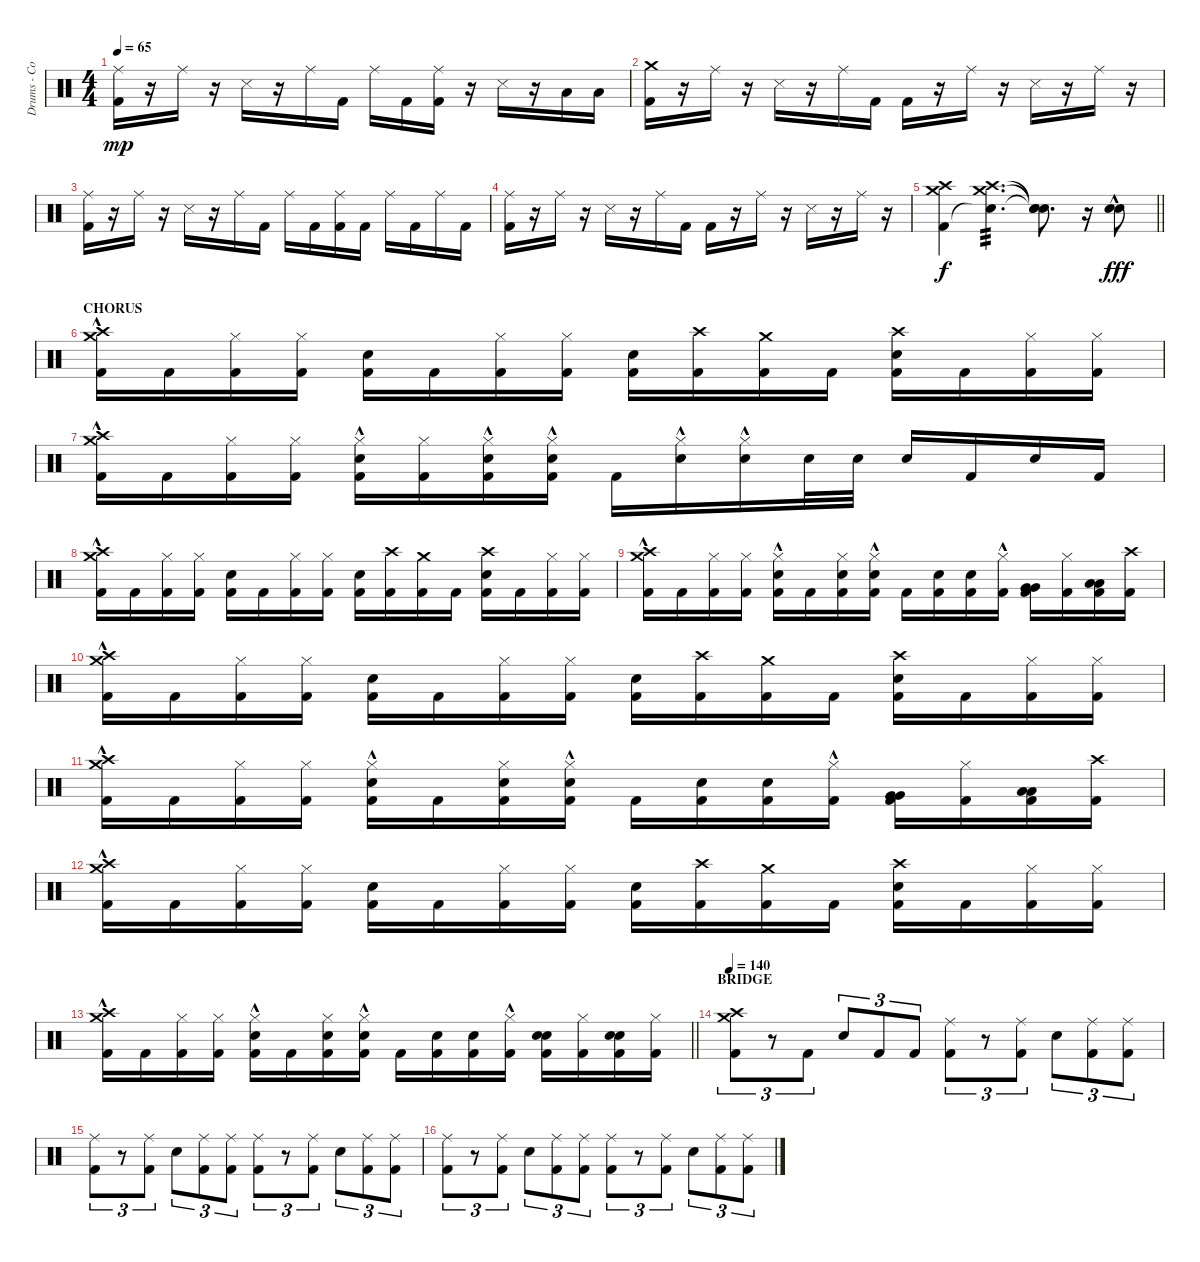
\track ("Drums - Cozy Powell" "Drums - Co") {instrument percussion}
\staff {score}
\articulation defaults
\ts (4 4)
\tempo 65
\clef neutral
\ks c
("Ride (middle)" "Kick (hit) 2").16{dy mp} r.16 "Ride (middle)".16 r.16 "Snare (side stick) 3".16 r.16 "Ride (middle)".16 "Kick (hit) 2".16 "Ride (middle)".16 "Kick (hit) 2".16 ("Ride (middle)" "Kick (hit) 2").16 r.16 "Snare (side stick) 3".16 r.16 "Low Tom (hit)".16 "Low Floor Tom (hit)".16 |
("Crash medium (hit)" "Kick (hit) 2").16 r.16 "Ride (middle)".16 r.16 "Snare (side stick) 3".16 r.16 "Ride (middle)".16 "Kick (hit) 2".16 "Kick (hit) 2".16 r.16 "Ride (middle)".16 r.16 "Snare (side stick) 3".16 r.16 "Ride (middle)".16 r.16 |
("Ride (middle)" "Kick (hit) 2").16 r.16 "Ride (middle)".16 r.16 "Snare (side stick) 3".16 r.16 "Ride (middle)".16 "Kick (hit) 2".16 "Ride (middle)".16 "Kick (hit) 2".16 ("Ride (middle)" "Kick (hit) 2").16 "Kick (hit) 2".16 "Ride (middle)".16 "Kick (hit) 2".16 "Ride (middle)".16 "Kick (hit) 2".16 |
("Ride (middle)" "Kick (hit) 2").16 r.16 "Ride (middle)".16 r.16 "Snare (side stick) 3".16 r.16 "Ride (middle)".16 "Kick (hit) 2".16 "Kick (hit) 2".16 r.16 "Ride (middle)".16 r.16 "Snare (side stick) 3".16 r.16 "Ride (middle)".16 r.16 |
\barLineRight lightlight
("Crash high (hit)" "Crash medium (hit)" "Kick (hit) 2").4{dy f} ("Crash high (hit)" "Crash medium (hit)" "Snare (hit)"{t}).4{d tp 3} ("Snare (hit)"{t} "Snare (hit)"{t} "Snare (hit)"{t}).8{d} r.16 ("Snare (hit) 2" "Snare (hit) 2"{hac}).8{dy fff} |
\section ("" "CHORUS")
("Crash medium (hit)" "Crash high (hit)"{hac} "Kick (hit) 2").16 "Kick (hit) 2".16 ("Hi-Hat (closed)" "Kick (hit) 2").16 ("Hi-Hat (closed)" "Kick (hit) 2").16 ("Snare (hit) 2" "Kick (hit) 2").16 "Kick (hit) 2".16 ("Hi-Hat (closed)" "Kick (hit) 2").16 ("Hi-Hat (closed)" "Kick (hit) 2").16 ("Snare (hit) 2" "Kick (hit) 2").16 ("Crash high (hit)" "Kick (hit) 2").16 ("Crash medium (hit)" "Kick (hit) 2").16 "Kick (hit) 2".16 ("Crash high (hit)" "Snare (hit) 2" "Kick (hit) 2").16 "Kick (hit) 2".16 ("Hi-Hat (closed)" "Kick (hit) 2").16 ("Hi-Hat (closed)" "Kick (hit) 2").16 |
("Crash medium (hit)" "Crash high (hit)"{hac} "Kick (hit) 2").16 "Kick (hit) 2".16 ("Hi-Hat (closed)" "Kick (hit) 2").16 ("Hi-Hat (closed)" "Kick (hit) 2").16 ("Hi-Hat (closed)"{hac} "Snare (hit) 2" "Kick (hit) 2").16 ("Hi-Hat (closed)" "Kick (hit) 2").16 ("Hi-Hat (closed)"{hac} "Snare (hit) 2" "Kick (hit) 2").16 ("Hi-Hat (closed)"{hac} "Snare (hit) 2" "Kick (hit) 2").16 "Kick (hit) 2".16 ("Hi-Hat (closed)"{hac} "Snare (hit) 2").16 ("Hi-Hat (closed)"{hac} "Snare (hit) 2").16 "Snare (hit) 2".32 "Snare (hit) 2".32 "Snare (hit) 2".16 "Kick (hit) 2".16 "Snare (hit) 2".16 "Kick (hit) 2".16 |
("Crash medium (hit)" "Crash high (hit)"{hac} "Kick (hit) 2").16 "Kick (hit) 2".16 ("Hi-Hat (closed)" "Kick (hit) 2").16 ("Hi-Hat (closed)" "Kick (hit) 2").16 ("Snare (hit) 2" "Kick (hit) 2").16 "Kick (hit) 2".16 ("Hi-Hat (closed)" "Kick (hit) 2").16 ("Hi-Hat (closed)" "Kick (hit) 2").16 ("Snare (hit) 2" "Kick (hit) 2").16 ("Crash high (hit)" "Kick (hit) 2").16 ("Crash medium (hit)" "Kick (hit) 2").16 "Kick (hit) 2".16 ("Crash high (hit)" "Snare (hit) 2" "Kick (hit) 2").16 "Kick (hit) 2".16 ("Hi-Hat (closed)" "Kick (hit) 2").16 ("Hi-Hat (closed)" "Kick (hit) 2").16 |
("Crash medium (hit)" "Crash high (hit)"{hac} "Kick (hit) 2").16 "Kick (hit) 2".16 ("Hi-Hat (closed)" "Kick (hit) 2").16 ("Hi-Hat (closed)" "Kick (hit) 2").16 ("Hi-Hat (closed)"{hac} "Snare (hit) 2" "Kick (hit) 2").16 "Kick (hit) 2".16 ("Hi-Hat (closed)" "Snare (hit) 2" "Kick (hit) 2").16 ("Hi-Hat (closed)"{hac} "Snare (hit) 2" "Kick (hit) 2").16 "Kick (hit) 2".16 ("Snare (hit) 2" "Kick (hit) 2").16 ("Snare (hit) 2" "Kick (hit) 2").16 ("Hi-Hat (closed)"{hac} "Kick (hit) 2").16 ("Very Low Tom (hit)" "Very Low Tom (hit)" "Kick (hit) 2").16 ("Hi-Hat (closed)" "Kick (hit) 2").16 ("Low Floor Tom (hit)" "Low Floor Tom (hit)" "Kick (hit) 2").16 ("Crash high (hit)" "Kick (hit) 2").16 |
("Crash medium (hit)" "Crash high (hit)"{hac} "Kick (hit) 2").16 "Kick (hit) 2".16 ("Hi-Hat (closed)" "Kick (hit) 2").16 ("Hi-Hat (closed)" "Kick (hit) 2").16 ("Snare (hit) 2" "Kick (hit) 2").16 "Kick (hit) 2".16 ("Hi-Hat (closed)" "Kick (hit) 2").16 ("Hi-Hat (closed)" "Kick (hit) 2").16 ("Snare (hit) 2" "Kick (hit) 2").16 ("Crash high (hit)" "Kick (hit) 2").16 ("Crash medium (hit)" "Kick (hit) 2").16 "Kick (hit) 2".16 ("Crash high (hit)" "Snare (hit) 2" "Kick (hit) 2").16 "Kick (hit) 2".16 ("Hi-Hat (closed)" "Kick (hit) 2").16 ("Hi-Hat (closed)" "Kick (hit) 2").16 |
("Crash medium (hit)" "Crash high (hit)"{hac} "Kick (hit) 2").16 "Kick (hit) 2".16 ("Hi-Hat (closed)" "Kick (hit) 2").16 ("Hi-Hat (closed)" "Kick (hit) 2").16 ("Hi-Hat (closed)"{hac} "Snare (hit) 2" "Kick (hit) 2").16 "Kick (hit) 2".16 ("Hi-Hat (closed)" "Snare (hit) 2" "Kick (hit) 2").16 ("Hi-Hat (closed)"{hac} "Snare (hit) 2" "Kick (hit) 2").16 "Kick (hit) 2".16 ("Snare (hit) 2" "Kick (hit) 2").16 ("Snare (hit) 2" "Kick (hit) 2").16 ("Hi-Hat (closed)"{hac} "Kick (hit) 2").16 ("Very Low Tom (hit)" "Very Low Tom (hit)" "Kick (hit) 2").16 ("Hi-Hat (closed)" "Kick (hit) 2").16 ("Low Floor Tom (hit)" "Low Floor Tom (hit)" "Kick (hit) 2").16 ("Crash high (hit)" "Kick (hit) 2").16 |
("Crash medium (hit)" "Crash high (hit)"{hac} "Kick (hit) 2").16 "Kick (hit) 2".16 ("Hi-Hat (closed)" "Kick (hit) 2").16 ("Hi-Hat (closed)" "Kick (hit) 2").16 ("Snare (hit) 2" "Kick (hit) 2").16 "Kick (hit) 2".16 ("Hi-Hat (closed)" "Kick (hit) 2").16 ("Hi-Hat (closed)" "Kick (hit) 2").16 ("Snare (hit) 2" "Kick (hit) 2").16 ("Crash high (hit)" "Kick (hit) 2").16 ("Crash medium (hit)" "Kick (hit) 2").16 "Kick (hit) 2".16 ("Crash high (hit)" "Snare (hit) 2" "Kick (hit) 2").16 "Kick (hit) 2".16 ("Hi-Hat (closed)" "Kick (hit) 2").16 ("Hi-Hat (closed)" "Kick (hit) 2").16 |
\barLineRight lightlight
("Crash medium (hit)" "Crash high (hit)"{hac} "Kick (hit) 2").16 "Kick (hit) 2".16 ("Hi-Hat (closed)" "Kick (hit) 2").16 ("Hi-Hat (closed)" "Kick (hit) 2").16 ("Hi-Hat (closed)"{hac} "Snare (hit) 2" "Kick (hit) 2").16 "Kick (hit) 2".16 ("Hi-Hat (closed)" "Snare (hit) 2" "Kick (hit) 2").16 ("Hi-Hat (closed)"{hac} "Snare (hit) 2" "Kick (hit) 2").16 "Kick (hit) 2".16 ("Snare (hit) 2" "Kick (hit) 2").16 ("Snare (hit) 2" "Kick (hit) 2").16 ("Hi-Hat (closed)"{hac} "Kick (hit) 2").16 ("Snare (hit) 2" "Snare (hit) 2" "Kick (hit) 2").16 ("Hi-Hat (closed)" "Kick (hit) 2").16 ("Snare (hit) 2" "Snare (hit) 2" "Kick (hit) 2").16 ("Hi-Hat (closed)" "Kick (hit) 2").16 |
\section ("" "BRIDGE")
\tempo 140
("Crash high (hit)" "Crash medium (hit)" "Kick (hit) 2").8{tu (3 2)} r.8{tu (3 2)} "Kick (hit) 2".8{tu (3 2)} "Snare (hit) 2".8{tu (3 2)} "Kick (hit) 2".8{tu (3 2)} "Kick (hit) 2".8{tu (3 2)} ("Ride (middle)" "Kick (hit) 2").8{tu (3 2)} r.8{tu (3 2)} ("Ride (middle)" "Kick (hit) 2").8{tu (3 2)} "Snare (hit) 2".8{tu (3 2)} ("Ride (middle)" "Kick (hit) 2").8{tu (3 2)} ("Ride (middle)" "Kick (hit) 2").8{tu (3 2)} |
("Ride (middle)" "Kick (hit) 2").8{tu (3 2)} r.8{tu (3 2)} ("Ride (middle)" "Kick (hit) 2").8{tu (3 2)} "Snare (hit) 2".8{tu (3 2)} ("Ride (middle)" "Kick (hit) 2").8{tu (3 2)} ("Ride (middle)" "Kick (hit) 2").8{tu (3 2)} ("Ride (middle)" "Kick (hit) 2").8{tu (3 2)} r.8{tu (3 2)} ("Ride (middle)" "Kick (hit) 2").8{tu (3 2)} "Snare (hit) 2".8{tu (3 2)} ("Ride (middle)" "Kick (hit) 2").8{tu (3 2)} ("Ride (middle)" "Kick (hit) 2").8{tu (3 2)} |
("Ride (middle)" "Kick (hit) 2").8{tu (3 2)} r.8{tu (3 2)} ("Ride (middle)" "Kick (hit) 2").8{tu (3 2)} "Snare (hit) 2".8{tu (3 2)} ("Ride (middle)" "Kick (hit) 2").8{tu (3 2)} ("Ride (middle)" "Kick (hit) 2").8{tu (3 2)} ("Ride (middle)" "Kick (hit) 2").8{tu (3 2)} r.8{tu (3 2)} ("Ride (middle)" "Kick (hit) 2").8{tu (3 2)} "Snare (hit) 2".8{tu (3 2)} ("Ride (middle)" "Kick (hit) 2").8{tu (3 2)} ("Ride (middle)" "Kick (hit) 2").8{tu (3 2)}
